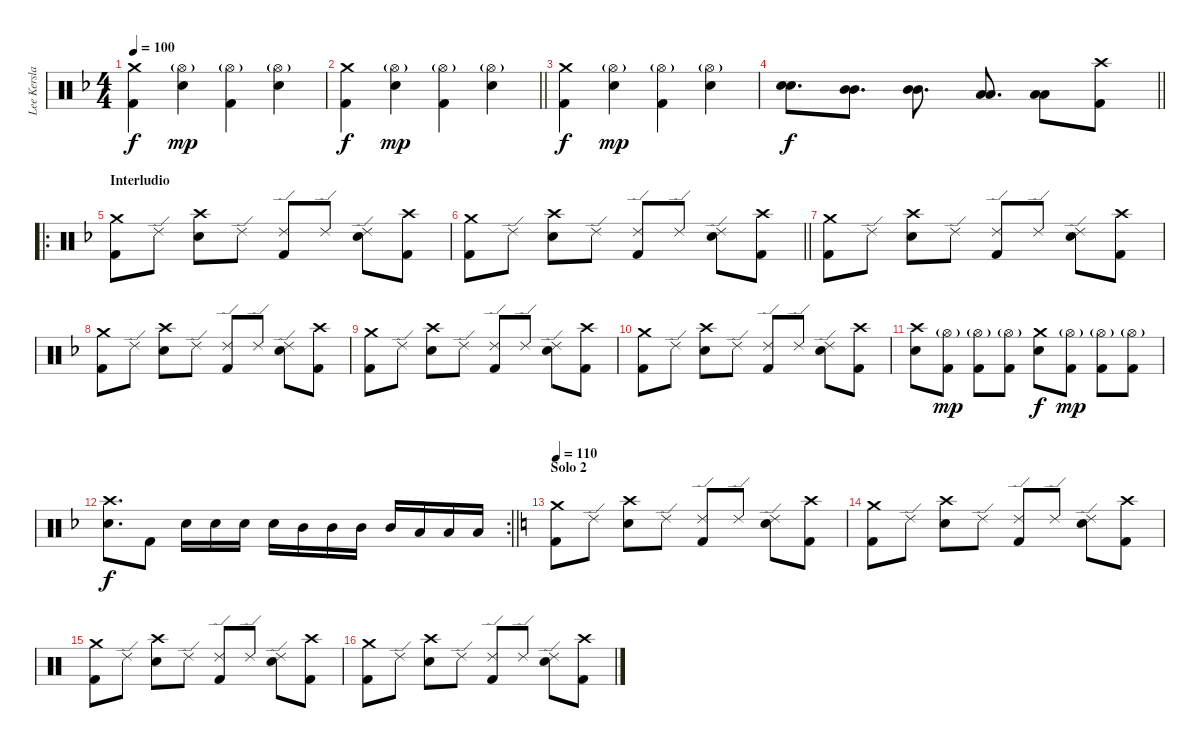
\track ("Lee Kerslake - Drums" "Lee Kersla") {instrument percussion}
\staff {score}
\articulation defaults
\ts (4 4)
\tempo 100
\clef neutral
\ks dminor
("Crash medium (hit)" "Kick (hit) 2").4{dy f} ("Hi-Hat (open)"{g} "Snare (hit) 2").4{dy mp} ("Hi-Hat (open)"{g} "Kick (hit) 2").4 ("Hi-Hat (open)"{g} "Snare (hit) 2").4 |
\barLineRight lightlight
("Crash medium (hit)" "Kick (hit) 2").4{dy f} ("Hi-Hat (open)"{g} "Snare (hit) 2").4{dy mp} ("Hi-Hat (open)"{g} "Kick (hit) 2").4 ("Hi-Hat (open)"{g} "Snare (hit) 2").4 |
("Crash medium (hit)" "Kick (hit) 2").4{dy f} ("Hi-Hat (open)"{g} "Snare (hit) 2").4{dy mp} ("Hi-Hat (open)"{g} "Kick (hit) 2").4 ("Hi-Hat (open)"{g} "Snare (hit) 2").4 |
\barLineRight lightlight
("Snare (hit) 2" "Snare (hit) 2").8{d bd 240 dy f} ("Mid Tom (hit)" "Mid Tom (hit)").8{d bd 240} ("Mid Tom (hit)" "Mid Tom (hit)").8{d bd 240} ("Low Tom (hit)" "Low Tom (hit)").8{d bd 240} ("Low Tom (hit)" "Low Tom (hit)").8{bd 240} ("Crash high (hit)" "Kick (hit) 2").8{bd 240} |
\ro
\section ("" "Interludio")
("Crash medium (hit)" "Kick (hit) 2").8 "Ride (edge) 2".8 ("Crash high (hit)" "Snare (hit) 2").8 "Ride (edge) 2".8 ("Ride (edge) 2" "Kick (hit) 2").8 "Ride (edge) 2".8 ("Ride (edge) 2" "Snare (hit) 2").8 ("Crash high (hit)" "Kick (hit) 2").8 |
\barLineRight lightlight
("Crash medium (hit)" "Kick (hit) 2").8 "Ride (edge) 2".8 ("Crash high (hit)" "Snare (hit) 2").8 "Ride (edge) 2".8 ("Ride (edge) 2" "Kick (hit) 2").8 "Ride (edge) 2".8 ("Ride (edge) 2" "Snare (hit) 2").8 ("Crash high (hit)" "Kick (hit) 2").8 |
("Crash medium (hit)" "Kick (hit) 2").8 "Ride (edge) 2".8 ("Crash high (hit)" "Snare (hit) 2").8 "Ride (edge) 2".8 ("Ride (edge) 2" "Kick (hit) 2").8 "Ride (edge) 2".8 ("Ride (edge) 2" "Snare (hit) 2").8 ("Crash high (hit)" "Kick (hit) 2").8 |
("Crash medium (hit)" "Kick (hit) 2").8 "Ride (edge) 2".8 ("Crash high (hit)" "Snare (hit) 2").8 "Ride (edge) 2".8 ("Ride (edge) 2" "Kick (hit) 2").8 "Ride (edge) 2".8 ("Ride (edge) 2" "Snare (hit) 2").8 ("Crash high (hit)" "Kick (hit) 2").8 |
("Crash medium (hit)" "Kick (hit) 2").8 "Ride (edge) 2".8 ("Crash high (hit)" "Snare (hit) 2").8 "Ride (edge) 2".8 ("Ride (edge) 2" "Kick (hit) 2").8 "Ride (edge) 2".8 ("Ride (edge) 2" "Snare (hit) 2").8 ("Crash high (hit)" "Kick (hit) 2").8 |
("Crash medium (hit)" "Kick (hit) 2").8 "Ride (edge) 2".8 ("Crash high (hit)" "Snare (hit) 2").8 "Ride (edge) 2".8 ("Ride (edge) 2" "Kick (hit) 2").8 "Ride (edge) 2".8 ("Ride (edge) 2" "Snare (hit) 2").8 ("Crash high (hit)" "Kick (hit) 2").8 |
("Crash high (hit)" "Snare (hit) 2").8 ("Hi-Hat (open)"{g} "Kick (hit) 2").8{dy mp} ("Hi-Hat (open)"{g} "Kick (hit) 2").8 ("Hi-Hat (open)"{g} "Kick (hit) 2").8 ("Crash medium (hit)" "Snare (hit) 2").8{dy f} ("Hi-Hat (open)"{g} "Kick (hit) 2").8{dy mp} ("Hi-Hat (open)"{g} "Kick (hit) 2").8 ("Hi-Hat (open)"{g} "Kick (hit) 2").8 |
\rc 2
\barLineRight lightlight
("Crash high (hit)" "Snare (hit) 2").8{d dy f} "Kick (hit) 2".8 "Snare (hit) 2".16 "Snare (hit) 2".16 "Snare (hit) 2".16 "Snare (hit) 2".16 "Mid Tom (hit)".16 "Mid Tom (hit)".16 "Mid Tom (hit)".16 "Mid Tom (hit)".16 "Low Tom (hit)".16 "Low Tom (hit)".16 "Low Tom (hit)".16 |
\section ("" "Solo 2")
\tempo 110
\ks c
("Crash medium (hit)" "Kick (hit) 2").8 "Ride (edge) 2".8 ("Crash high (hit)" "Snare (hit) 2").8 "Ride (edge) 2".8 ("Ride (edge) 2" "Kick (hit) 2").8 "Ride (edge) 2".8 ("Ride (edge) 2" "Snare (hit) 2").8 ("Crash high (hit)" "Kick (hit) 2").8 |
("Crash medium (hit)" "Kick (hit) 2").8 "Ride (edge) 2".8 ("Crash high (hit)" "Snare (hit) 2").8 "Ride (edge) 2".8 ("Ride (edge) 2" "Kick (hit) 2").8 "Ride (edge) 2".8 ("Ride (edge) 2" "Snare (hit) 2").8 ("Crash high (hit)" "Kick (hit) 2").8 |
("Crash medium (hit)" "Kick (hit) 2").8 "Ride (edge) 2".8 ("Crash high (hit)" "Snare (hit) 2").8 "Ride (edge) 2".8 ("Ride (edge) 2" "Kick (hit) 2").8 "Ride (edge) 2".8 ("Ride (edge) 2" "Snare (hit) 2").8 ("Crash high (hit)" "Kick (hit) 2").8 |
("Crash medium (hit)" "Kick (hit) 2").8 "Ride (edge) 2".8 ("Crash high (hit)" "Snare (hit) 2").8 "Ride (edge) 2".8 ("Ride (edge) 2" "Kick (hit) 2").8 "Ride (edge) 2".8 ("Ride (edge) 2" "Snare (hit) 2").8 ("Crash high (hit)" "Kick (hit) 2").8
